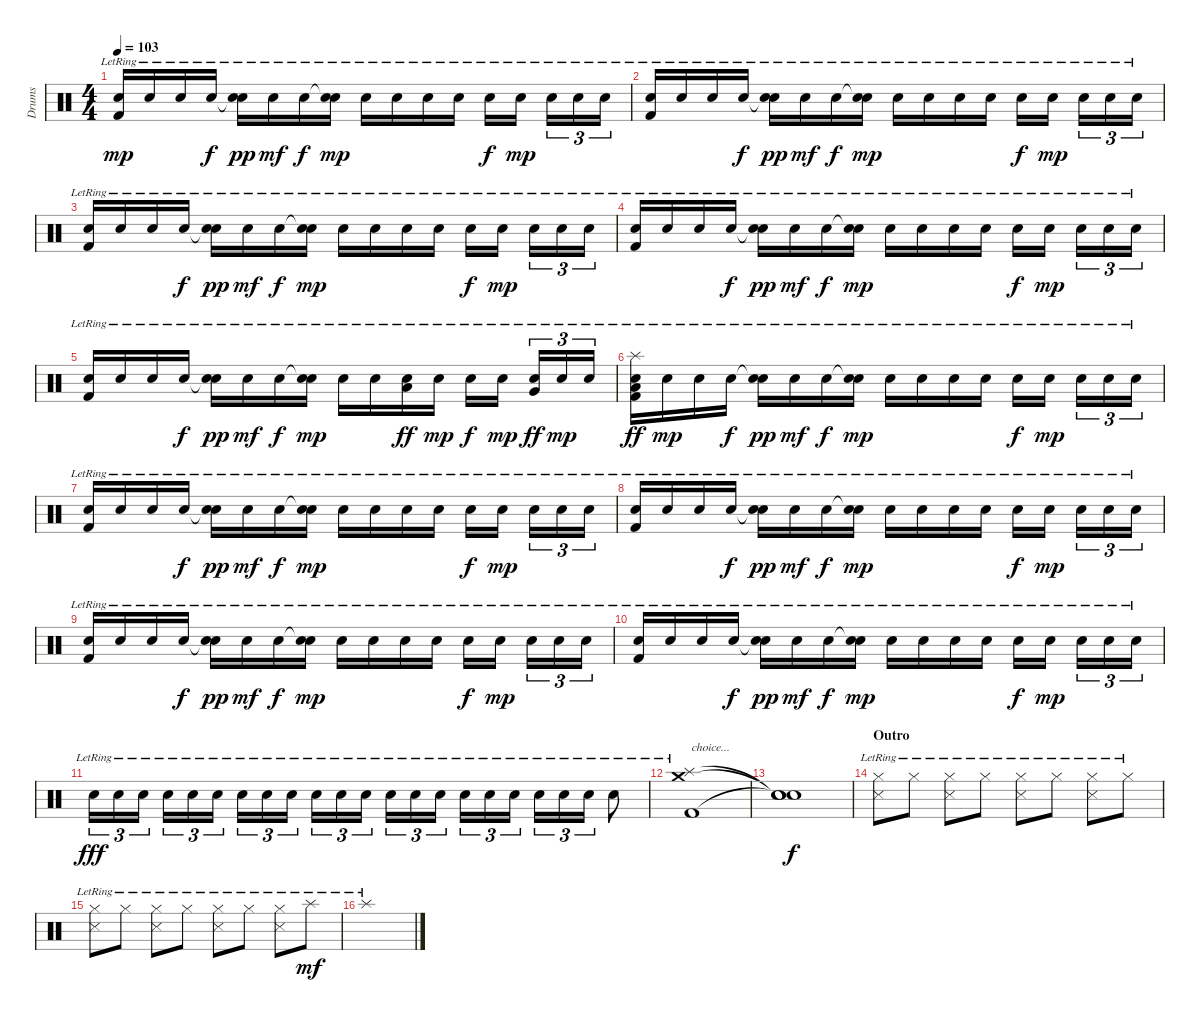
\track ("Drums" "Drums") {instrument percussion}
\staff {score}
\articulation defaults
\ts (4 4)
\tempo 103
\clef neutral
\ks c
("Snare (hit) 2"{lr} "Kick (hit) 2"{lr}).16{dy mp} "Snare (hit) 2"{lr}.16 "Snare (hit) 2"{lr}.16 "Electric Snare (hit)"{lr}.16{dy f} ("Snare (hit)"{t} "Snare (hit) 2"{lr}).16{dy pp} "Snare (hit) 2"{lr}.16{dy mf} "Electric Snare (hit)"{lr}.16{dy f} ("Snare (hit)"{t} "Snare (hit) 2"{lr}).16{dy mp} "Snare (hit) 2"{lr}.16 "Snare (hit) 2"{lr}.16 "Snare (hit) 2"{lr}.16 "Snare (hit) 2"{lr}.16 "Electric Snare (hit)"{lr}.16{dy f} "Snare (hit) 2"{lr}.16{dy mp} "Snare (hit) 2"{lr}.16{tu (3 2)} "Snare (hit) 2"{lr}.16{tu (3 2)} "Snare (hit) 2"{lr}.16{tu (3 2)} |
("Snare (hit) 2"{lr} "Kick (hit) 2"{lr}).16 "Snare (hit) 2"{lr}.16 "Snare (hit) 2"{lr}.16 "Electric Snare (hit)"{lr}.16{dy f} ("Snare (hit)"{t} "Snare (hit) 2"{lr}).16{dy pp} "Snare (hit) 2"{lr}.16{dy mf} "Electric Snare (hit)"{lr}.16{dy f} ("Snare (hit)"{t} "Snare (hit) 2"{lr}).16{dy mp} "Snare (hit) 2"{lr}.16 "Snare (hit) 2"{lr}.16 "Snare (hit) 2"{lr}.16 "Snare (hit) 2"{lr}.16 "Electric Snare (hit)"{lr}.16{dy f} "Snare (hit) 2"{lr}.16{dy mp} "Snare (hit) 2"{lr}.16{tu (3 2)} "Snare (hit) 2"{lr}.16{tu (3 2)} "Snare (hit) 2"{lr}.16{tu (3 2)} |
("Snare (hit) 2"{lr} "Kick (hit) 2"{lr}).16 "Snare (hit) 2"{lr}.16 "Snare (hit) 2"{lr}.16 "Electric Snare (hit)"{lr}.16{dy f} ("Snare (hit)"{t} "Snare (hit) 2"{lr}).16{dy pp} "Snare (hit) 2"{lr}.16{dy mf} "Electric Snare (hit)"{lr}.16{dy f} ("Snare (hit)"{t} "Snare (hit) 2"{lr}).16{dy mp} "Snare (hit) 2"{lr}.16 "Snare (hit) 2"{lr}.16 "Snare (hit) 2"{lr}.16 "Snare (hit) 2"{lr}.16 "Electric Snare (hit)"{lr}.16{dy f} "Snare (hit) 2"{lr}.16{dy mp} "Snare (hit) 2"{lr}.16{tu (3 2)} "Snare (hit) 2"{lr}.16{tu (3 2)} "Snare (hit) 2"{lr}.16{tu (3 2)} |
("Snare (hit) 2"{lr} "Kick (hit) 2"{lr}).16 "Snare (hit) 2"{lr}.16 "Snare (hit) 2"{lr}.16 "Electric Snare (hit)"{lr}.16{dy f} ("Snare (hit)"{t} "Snare (hit) 2"{lr}).16{dy pp} "Snare (hit) 2"{lr}.16{dy mf} "Electric Snare (hit)"{lr}.16{dy f} ("Snare (hit)"{t} "Snare (hit) 2"{lr}).16{dy mp} "Snare (hit) 2"{lr}.16 "Snare (hit) 2"{lr}.16 "Snare (hit) 2"{lr}.16 "Snare (hit) 2"{lr}.16 "Electric Snare (hit)"{lr}.16{dy f} "Snare (hit) 2"{lr}.16{dy mp} "Snare (hit) 2"{lr}.16{tu (3 2)} "Snare (hit) 2"{lr}.16{tu (3 2)} "Snare (hit) 2"{lr}.16{tu (3 2)} |
("Snare (hit) 2"{lr} "Kick (hit) 2"{lr}).16 "Snare (hit) 2"{lr}.16 "Snare (hit) 2"{lr}.16 "Electric Snare (hit)"{lr}.16{dy f} ("Snare (hit)"{t} "Snare (hit) 2"{lr}).16{dy pp} "Snare (hit) 2"{lr}.16{dy mf} "Electric Snare (hit)"{lr}.16{dy f} ("Snare (hit)"{t} "Snare (hit) 2"{lr}).16{dy mp} "Snare (hit) 2"{lr}.16 "Snare (hit) 2"{lr}.16 ("Snare (hit) 2"{lr} "Low Tom (hit)"{lr}).16{dy ff} "Snare (hit) 2"{lr}.16{dy mp} "Electric Snare (hit)"{lr}.16{dy f} "Snare (hit) 2"{lr}.16{dy mp} ("Snare (hit) 2"{lr} "Very Low Tom (hit)"{lr}).16{tu (3 2) dy ff} "Snare (hit) 2"{lr}.16{tu (3 2) dy mp} "Snare (hit) 2"{lr}.16{tu (3 2)} |
("Splash (hit)"{lr} "Snare (hit) 2"{lr} "Low Floor Tom (hit)"{lr} "Kick (hit) 2"{lr}).16{dy ff} "Snare (hit) 2"{lr}.16{dy mp} "Snare (hit) 2"{lr}.16 "Electric Snare (hit)"{lr}.16{dy f} ("Snare (hit)"{t} "Snare (hit) 2"{lr}).16{dy pp} "Snare (hit) 2"{lr}.16{dy mf} "Electric Snare (hit)"{lr}.16{dy f} ("Snare (hit)"{t} "Snare (hit) 2"{lr}).16{dy mp} "Snare (hit) 2"{lr}.16 "Snare (hit) 2"{lr}.16 "Snare (hit) 2"{lr}.16 "Snare (hit) 2"{lr}.16 "Electric Snare (hit)"{lr}.16{dy f} "Snare (hit) 2"{lr}.16{dy mp} "Snare (hit) 2"{lr}.16{tu (3 2)} "Snare (hit) 2"{lr}.16{tu (3 2)} "Snare (hit) 2"{lr}.16{tu (3 2)} |
("Snare (hit) 2"{lr} "Kick (hit) 2"{lr}).16 "Snare (hit) 2"{lr}.16 "Snare (hit) 2"{lr}.16 "Electric Snare (hit)"{lr}.16{dy f} ("Snare (hit)"{t} "Snare (hit) 2"{lr}).16{dy pp} "Snare (hit) 2"{lr}.16{dy mf} "Electric Snare (hit)"{lr}.16{dy f} ("Snare (hit)"{t} "Snare (hit) 2"{lr}).16{dy mp} "Snare (hit) 2"{lr}.16 "Snare (hit) 2"{lr}.16 "Snare (hit) 2"{lr}.16 "Snare (hit) 2"{lr}.16 "Electric Snare (hit)"{lr}.16{dy f} "Snare (hit) 2"{lr}.16{dy mp} "Snare (hit) 2"{lr}.16{tu (3 2)} "Snare (hit) 2"{lr}.16{tu (3 2)} "Snare (hit) 2"{lr}.16{tu (3 2)} |
("Snare (hit) 2"{lr} "Kick (hit) 2"{lr}).16 "Snare (hit) 2"{lr}.16 "Snare (hit) 2"{lr}.16 "Electric Snare (hit)"{lr}.16{dy f} ("Snare (hit)"{t} "Snare (hit) 2"{lr}).16{dy pp} "Snare (hit) 2"{lr}.16{dy mf} "Electric Snare (hit)"{lr}.16{dy f} ("Snare (hit)"{t} "Snare (hit) 2"{lr}).16{dy mp} "Snare (hit) 2"{lr}.16 "Snare (hit) 2"{lr}.16 "Snare (hit) 2"{lr}.16 "Snare (hit) 2"{lr}.16 "Electric Snare (hit)"{lr}.16{dy f} "Snare (hit) 2"{lr}.16{dy mp} "Snare (hit) 2"{lr}.16{tu (3 2)} "Snare (hit) 2"{lr}.16{tu (3 2)} "Snare (hit) 2"{lr}.16{tu (3 2)} |
("Snare (hit) 2"{lr} "Kick (hit) 2"{lr}).16 "Snare (hit) 2"{lr}.16 "Snare (hit) 2"{lr}.16 "Electric Snare (hit)"{lr}.16{dy f} ("Snare (hit)"{t} "Snare (hit) 2"{lr}).16{dy pp} "Snare (hit) 2"{lr}.16{dy mf} "Electric Snare (hit)"{lr}.16{dy f} ("Snare (hit)"{t} "Snare (hit) 2"{lr}).16{dy mp} "Snare (hit) 2"{lr}.16 "Snare (hit) 2"{lr}.16 "Snare (hit) 2"{lr}.16 "Snare (hit) 2"{lr}.16 "Electric Snare (hit)"{lr}.16{dy f} "Snare (hit) 2"{lr}.16{dy mp} "Snare (hit) 2"{lr}.16{tu (3 2)} "Snare (hit) 2"{lr}.16{tu (3 2)} "Snare (hit) 2"{lr}.16{tu (3 2)} |
("Snare (hit) 2"{lr} "Kick (hit) 2"{lr}).16 "Snare (hit) 2"{lr}.16 "Snare (hit) 2"{lr}.16 "Electric Snare (hit)"{lr}.16{dy f} ("Snare (hit)"{t} "Snare (hit) 2"{lr}).16{dy pp} "Snare (hit) 2"{lr}.16{dy mf} "Electric Snare (hit)"{lr}.16{dy f} ("Snare (hit)"{t} "Snare (hit) 2"{lr}).16{dy mp} "Snare (hit) 2"{lr}.16 "Snare (hit) 2"{lr}.16 "Snare (hit) 2"{lr}.16 "Snare (hit) 2"{lr}.16 "Electric Snare (hit)"{lr}.16{dy f} "Snare (hit) 2"{lr}.16{dy mp} "Snare (hit) 2"{lr}.16{tu (3 2)} "Snare (hit) 2"{lr}.16{tu (3 2)} "Snare (hit) 2"{lr}.16{tu (3 2)} |
"Snare (hit) 2"{lr}.16{tu (3 2) dy fff volume 6} "Snare (hit) 2"{lr}.16{tu (3 2) volume 10} "Snare (hit) 2"{lr}.16{tu (3 2)} "Snare (hit) 2"{lr}.16{tu (3 2)} "Snare (hit) 2"{lr}.16{tu (3 2)} "Snare (hit) 2"{lr}.16{tu (3 2)} "Snare (hit) 2"{lr}.16{tu (3 2)} "Snare (hit) 2"{lr}.16{tu (3 2)} "Snare (hit) 2"{lr}.16{tu (3 2)} "Snare (hit) 2"{lr}.16{tu (3 2)} "Snare (hit) 2"{lr}.16{tu (3 2)} "Snare (hit) 2"{lr}.16{tu (3 2)} "Snare (hit) 2"{lr}.16{tu (3 2)} "Snare (hit) 2"{lr}.16{tu (3 2)} "Snare (hit) 2"{lr}.16{tu (3 2)} "Snare (hit) 2"{lr}.16{tu (3 2)} "Snare (hit) 2"{lr}.16{tu (3 2)} "Snare (hit) 2"{lr}.16{tu (3 2)} "Snare (hit) 2"{lr}.16{tu (3 2)} "Snare (hit) 2"{lr}.16{tu (3 2)} "Snare (hit) 2"{lr}.16{tu (3 2)} "Snare (hit) 2"{lr}.8 |
("Crash medium (hit)"{lr} "Splash (hit)"{lr} "Kick (hit) 2"{lr}).1{txt "choice..." volume 16} |
("Snare (hit)"{t} "Snare (hit)"{t} "Snare (hit)"{t}).1{dy f} |
\section ("" "Outro")
("Hi-Hat (closed)"{lr} "Snare (side stick) 3"{lr}).8 "Hi-Hat (closed)"{lr}.8 ("Hi-Hat (closed)"{lr} "Snare (side stick) 3"{lr}).8 "Hi-Hat (closed)"{lr}.8 ("Hi-Hat (closed)"{lr} "Snare (side stick) 3"{lr}).8 "Hi-Hat (closed)"{lr}.8 ("Hi-Hat (closed)"{lr} "Snare (side stick) 3"{lr}).8 "Hi-Hat (closed)"{lr}.8 |
("Hi-Hat (closed)"{lr} "Snare (side stick) 3"{lr}).8 "Hi-Hat (closed)"{lr}.8 ("Hi-Hat (closed)"{lr} "Snare (side stick) 3"{lr}).8 "Hi-Hat (closed)"{lr}.8 ("Hi-Hat (closed)"{lr} "Snare (side stick) 3"{lr}).8 "Hi-Hat (closed)"{lr}.8 ("Hi-Hat (closed)"{lr} "Snare (side stick) 3"{lr}).8 "Splash (hit)"{lr}.8{dy mf} |
"Splash (hit)"{lr}.1
